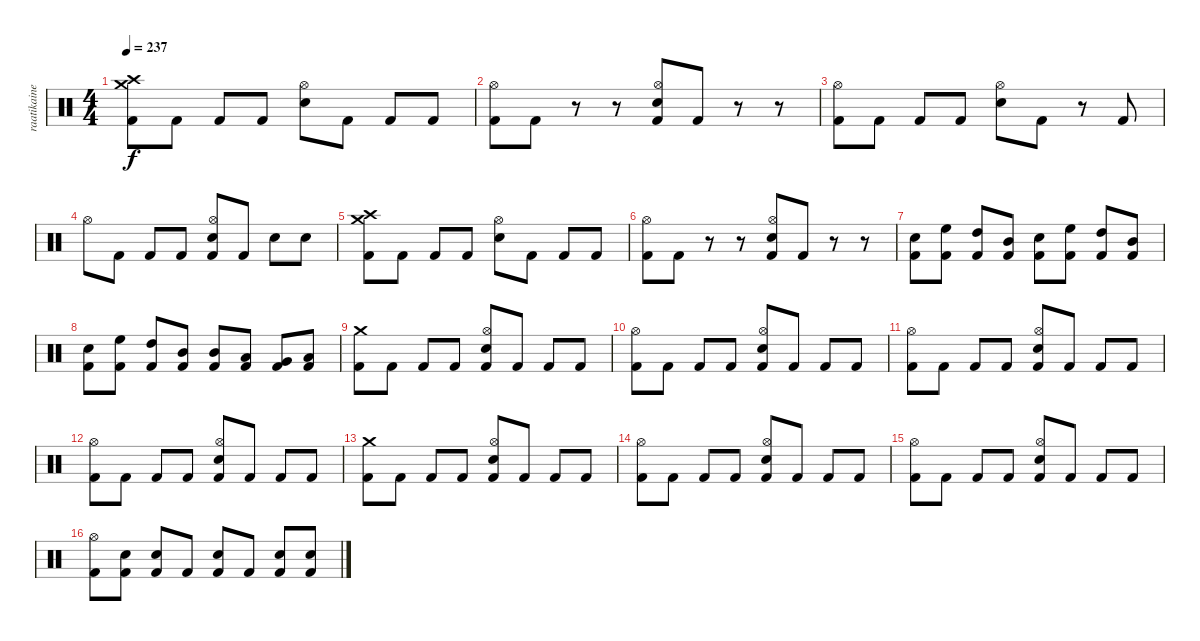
\track ("raatikainen" "raatikaine") {instrument percussion}
\staff {score}
\articulation defaults
\ts (4 4)
\tempo 237
\clef neutral
\ks c
("Crash medium (hit)" "Crash high (hit)" "Kick (hit) 2").8{dy f} "Kick (hit) 2".8 "Kick (hit) 2".8 "Kick (hit) 2".8 ("Hi-Hat (open)" "Snare (hit) 2").8 "Kick (hit) 2".8 "Kick (hit) 2".8 "Kick (hit) 2".8 |
("Hi-Hat (open)" "Kick (hit) 2").8 "Kick (hit) 2".8 r.8 r.8 ("Hi-Hat (open)" "Snare (hit) 2" "Kick (hit) 2").8 "Kick (hit) 2".8 r.8 r.8 |
("Hi-Hat (open)" "Kick (hit) 2").8 "Kick (hit) 2".8 "Kick (hit) 2".8 "Kick (hit) 2".8 ("Hi-Hat (open)" "Snare (hit) 2").8 "Kick (hit) 2".8 r.8 "Kick (hit) 2".8 |
"Hi-Hat (open)".8 "Kick (hit) 2".8 "Kick (hit) 2".8 "Kick (hit) 2".8 ("Hi-Hat (open)" "Snare (hit) 2" "Kick (hit) 2").8 "Kick (hit) 2".8 "Snare (hit) 2".8 "Snare (hit) 2".8 |
("Crash medium (hit)" "Crash high (hit)" "Kick (hit) 2").8 "Kick (hit) 2".8 "Kick (hit) 2".8 "Kick (hit) 2".8 ("Hi-Hat (open)" "Snare (hit) 2").8 "Kick (hit) 2".8 "Kick (hit) 2".8 "Kick (hit) 2".8 |
("Hi-Hat (open)" "Kick (hit) 2").8 "Kick (hit) 2".8 r.8 r.8 ("Hi-Hat (open)" "Snare (hit) 2" "Kick (hit) 2").8 "Kick (hit) 2".8 r.8 r.8 |
("Snare (hit) 2" "Kick (hit) 2").8 ("High Floor Tom (hit)" "Kick (hit) 2").8 ("High Tom (hit)" "Kick (hit) 2").8 ("Mid Tom (hit)" "Kick (hit) 2").8 ("Snare (hit) 2" "Kick (hit) 2").8 ("High Floor Tom (hit)" "Kick (hit) 2").8 ("High Tom (hit)" "Kick (hit) 2").8 ("Mid Tom (hit)" "Kick (hit) 2").8 |
("Snare (hit) 2" "Kick (hit) 2").8 ("High Floor Tom (hit)" "Kick (hit) 2").8 ("High Tom (hit)" "Kick (hit) 2").8 ("Mid Tom (hit)" "Kick (hit) 2").8 ("Mid Tom (hit)" "Kick (hit) 2").8 ("Low Tom (hit)" "Kick (hit) 2").8 ("Very Low Tom (hit)" "Kick (hit) 2").8 ("Low Floor Tom (hit)" "Kick (hit) 2").8 |
("Crash medium (hit)" "Kick (hit) 2").8 "Kick (hit) 2".8 "Kick (hit) 2".8 "Kick (hit) 2".8 ("Hi-Hat (open)" "Snare (hit) 2" "Kick (hit) 2").8 "Kick (hit) 2".8 "Kick (hit) 2".8 "Kick (hit) 2".8 |
("Hi-Hat (open)" "Kick (hit) 2").8 "Kick (hit) 2".8 "Kick (hit) 2".8 "Kick (hit) 2".8 ("Hi-Hat (open)" "Snare (hit) 2" "Kick (hit) 2").8 "Kick (hit) 2".8 "Kick (hit) 2".8 "Kick (hit) 2".8 |
("Hi-Hat (open)" "Kick (hit) 2").8 "Kick (hit) 2".8 "Kick (hit) 2".8 "Kick (hit) 2".8 ("Hi-Hat (open)" "Snare (hit) 2" "Kick (hit) 2").8 "Kick (hit) 2".8 "Kick (hit) 2".8 "Kick (hit) 2".8 |
("Hi-Hat (open)" "Kick (hit) 2").8 "Kick (hit) 2".8 "Kick (hit) 2".8 "Kick (hit) 2".8 ("Hi-Hat (open)" "Snare (hit) 2" "Kick (hit) 2").8 "Kick (hit) 2".8 "Kick (hit) 2".8 "Kick (hit) 2".8 |
("Crash medium (hit)" "Kick (hit) 2").8 "Kick (hit) 2".8 "Kick (hit) 2".8 "Kick (hit) 2".8 ("Hi-Hat (open)" "Snare (hit) 2" "Kick (hit) 2").8 "Kick (hit) 2".8 "Kick (hit) 2".8 "Kick (hit) 2".8 |
("Hi-Hat (open)" "Kick (hit) 2").8 "Kick (hit) 2".8 "Kick (hit) 2".8 "Kick (hit) 2".8 ("Hi-Hat (open)" "Snare (hit) 2" "Kick (hit) 2").8 "Kick (hit) 2".8 "Kick (hit) 2".8 "Kick (hit) 2".8 |
("Hi-Hat (open)" "Kick (hit) 2").8 "Kick (hit) 2".8 "Kick (hit) 2".8 "Kick (hit) 2".8 ("Hi-Hat (open)" "Snare (hit) 2" "Kick (hit) 2").8 "Kick (hit) 2".8 "Kick (hit) 2".8 "Kick (hit) 2".8 |
("Hi-Hat (open)" "Kick (hit) 2").8 ("Snare (hit) 2" "Kick (hit) 2").8{txt ""} ("Snare (hit) 2" "Kick (hit) 2").8 "Kick (hit) 2".8 ("Snare (hit) 2" "Kick (hit) 2").8 "Kick (hit) 2".8 ("Snare (hit) 2" "Kick (hit) 2").8 ("Snare (hit) 2" "Kick (hit) 2").8
